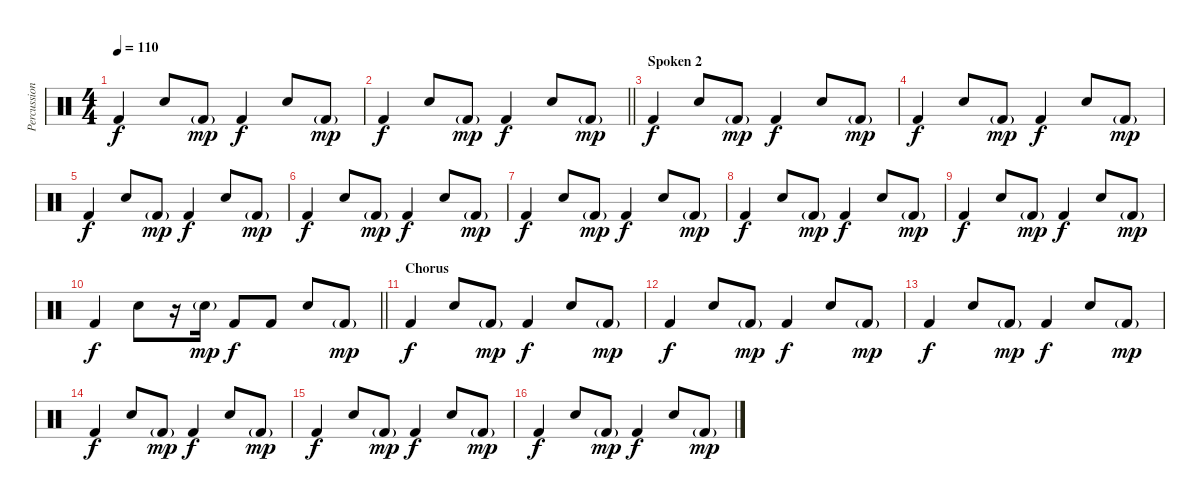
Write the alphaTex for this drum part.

\track ("Percussion" "Percussion") {instrument percussion}
\staff {score}
\articulation defaults
\ts (4 4)
\tempo 110
\clef neutral
\ks c "Kick (hit) 2".4{dy f} "Snare (hit) 2".8 "Kick (hit) 2"{g}.8{dy mp} "Kick (hit) 2".4{dy f} "Snare (hit) 2".8 "Kick (hit) 2"{g}.8{dy mp}
|
\barLineRight lightlight "Kick (hit) 2".4{dy f} "Snare (hit) 2".8 "Kick (hit) 2"{g}.8{dy mp} "Kick (hit) 2".4{dy f} "Snare (hit) 2".8 "Kick (hit) 2"{g}.8{dy mp}
|
\section ("" "Spoken 2")
"Kick (hit) 2".4{dy f} "Snare (hit) 2".8 "Kick (hit) 2"{g}.8{dy mp} "Kick (hit) 2".4{dy f} "Snare (hit) 2".8 "Kick (hit) 2"{g}.8{dy mp} |
"Kick (hit) 2".4{dy f} "Snare (hit) 2".8 "Kick (hit) 2"{g}.8{dy mp} "Kick (hit) 2".4{dy f} "Snare (hit) 2".8 "Kick (hit) 2"{g}.8{dy mp} |
"Kick (hit) 2".4{dy f} "Snare (hit) 2".8 "Kick (hit) 2"{g}.8{dy mp} "Kick (hit) 2".4{dy f} "Snare (hit) 2".8 "Kick (hit) 2"{g}.8{dy mp} |
"Kick (hit) 2".4{dy f} "Snare (hit) 2".8 "Kick (hit) 2"{g}.8{dy mp} "Kick (hit) 2".4{dy f} "Snare (hit) 2".8 "Kick (hit) 2"{g}.8{dy mp} |
"Kick (hit) 2".4{dy f} "Snare (hit) 2".8 "Kick (hit) 2"{g}.8{dy mp} "Kick (hit) 2".4{dy f} "Snare (hit) 2".8 "Kick (hit) 2"{g}.8{dy mp} |
"Kick (hit) 2".4{dy f} "Snare (hit) 2".8 "Kick (hit) 2"{g}.8{dy mp} "Kick (hit) 2".4{dy f} "Snare (hit) 2".8 "Kick (hit) 2"{g}.8{dy mp} |
"Kick (hit) 2".4{dy f} "Snare (hit) 2".8 "Kick (hit) 2"{g}.8{dy mp} "Kick (hit) 2".4{dy f} "Snare (hit) 2".8 "Kick (hit) 2"{g}.8{dy mp} |
\barLineRight lightlight "Kick (hit) 2".4{dy f} "Snare (hit) 2".8
r.16 "Snare (hit) 2"{g}.16{dy mp} "Kick (hit) 2".8{dy f} "Kick (hit) 2".8 "Snare (hit) 2".8 "Kick (hit) 2"{g}.8{dy mp} |
\section ("" "Chorus")
"Kick (hit) 2".4{dy f} "Snare (hit) 2".8 "Kick (hit) 2"{g}.8{dy mp} "Kick (hit) 2".4{dy f} "Snare (hit) 2".8 "Kick (hit) 2"{g}.8{dy mp} |
"Kick (hit) 2".4{dy f} "Snare (hit) 2".8 "Kick (hit) 2"{g}.8{dy mp} "Kick (hit) 2".4{dy f} "Snare (hit) 2".8 "Kick (hit) 2"{g}.8{dy mp} |
"Kick (hit) 2".4{dy f} "Snare (hit) 2".8 "Kick (hit) 2"{g}.8{dy mp} "Kick (hit) 2".4{dy f} "Snare (hit) 2".8 "Kick (hit) 2"{g}.8{dy mp} |
"Kick (hit) 2".4{dy f} "Snare (hit) 2".8 "Kick (hit) 2"{g}.8{dy mp} "Kick (hit) 2".4{dy f} "Snare (hit) 2".8 "Kick (hit) 2"{g}.8{dy mp} |
"Kick (hit) 2".4{dy f} "Snare (hit) 2".8 "Kick (hit) 2"{g}.8{dy mp} "Kick (hit) 2".4{dy f} "Snare (hit) 2".8 "Kick (hit) 2"{g}.8{dy mp} |
"Kick (hit) 2".4{dy f} "Snare (hit) 2".8 "Kick (hit) 2"{g}.8{dy mp} "Kick (hit) 2".4{dy f} "Snare (hit) 2".8 "Kick (hit) 2"{g}.8{dy mp}
